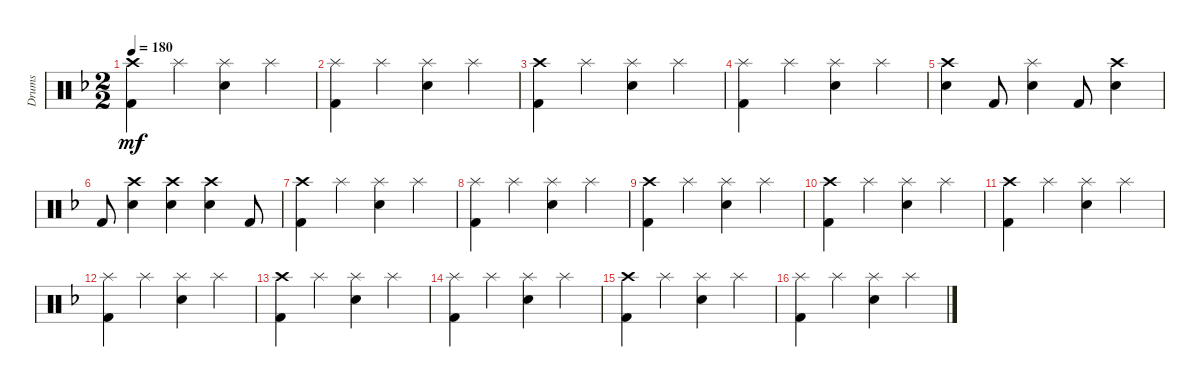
\track ("Drums" "Drums") {instrument percussion}
\staff {score}
\articulation defaults
\ts (2 2)
\tempo 180
\clef neutral
\ks dminor
("Crash high (hit)" "Kick (hit) 2").4{dy mf} "Splash (hit)".4 ("Splash (hit)" "Snare (hit) 2").4 "Splash (hit)".4 |
("Splash (hit)" "Kick (hit) 2").4 "Splash (hit)".4 ("Splash (hit)" "Snare (hit) 2").4 "Splash (hit)".4 |
("Crash high (hit)" "Kick (hit) 2").4 "Splash (hit)".4 ("Splash (hit)" "Snare (hit) 2").4 "Splash (hit)".4 |
("Splash (hit)" "Kick (hit) 2").4 "Splash (hit)".4 ("Splash (hit)" "Snare (hit) 2").4 "Splash (hit)".4 |
("Crash high (hit)" "Snare (hit) 2").4 "Kick (hit) 2".8 ("Splash (hit)" "Snare (hit) 2").4 "Kick (hit) 2".8 ("Snare (hit) 2" "Crash high (hit)").4 |
"Kick (hit) 2".8 ("Crash high (hit)" "Snare (hit) 2").4 ("Crash high (hit)" "Snare (hit) 2").4 ("Crash high (hit)" "Snare (hit) 2").4 "Kick (hit) 2".8 |
("Crash high (hit)" "Kick (hit) 2").4 "Splash (hit)".4 ("Splash (hit)" "Snare (hit) 2").4 "Splash (hit)".4 |
("Splash (hit)" "Kick (hit) 2").4 "Splash (hit)".4 ("Splash (hit)" "Snare (hit) 2").4 "Splash (hit)".4 |
("Crash high (hit)" "Kick (hit) 2").4 "Splash (hit)".4 ("Splash (hit)" "Snare (hit) 2").4 "Splash (hit)".4 |
("Crash high (hit)" "Kick (hit) 2").4 "Splash (hit)".4 ("Splash (hit)" "Snare (hit) 2").4 "Splash (hit)".4 |
("Crash high (hit)" "Kick (hit) 2").4 "Splash (hit)".4 ("Splash (hit)" "Snare (hit) 2").4 "Splash (hit)".4 |
("Splash (hit)" "Kick (hit) 2").4 "Splash (hit)".4 ("Splash (hit)" "Snare (hit) 2").4 "Splash (hit)".4 |
("Crash high (hit)" "Kick (hit) 2").4 "Splash (hit)".4 ("Splash (hit)" "Snare (hit) 2").4 "Splash (hit)".4 |
("Splash (hit)" "Kick (hit) 2").4 "Splash (hit)".4 ("Splash (hit)" "Snare (hit) 2").4 "Splash (hit)".4 |
("Crash high (hit)" "Kick (hit) 2").4 "Splash (hit)".4 ("Splash (hit)" "Snare (hit) 2").4 "Splash (hit)".4 |
("Splash (hit)" "Kick (hit) 2").4 "Splash (hit)".4 ("Splash (hit)" "Snare (hit) 2").4 "Splash (hit)".4
